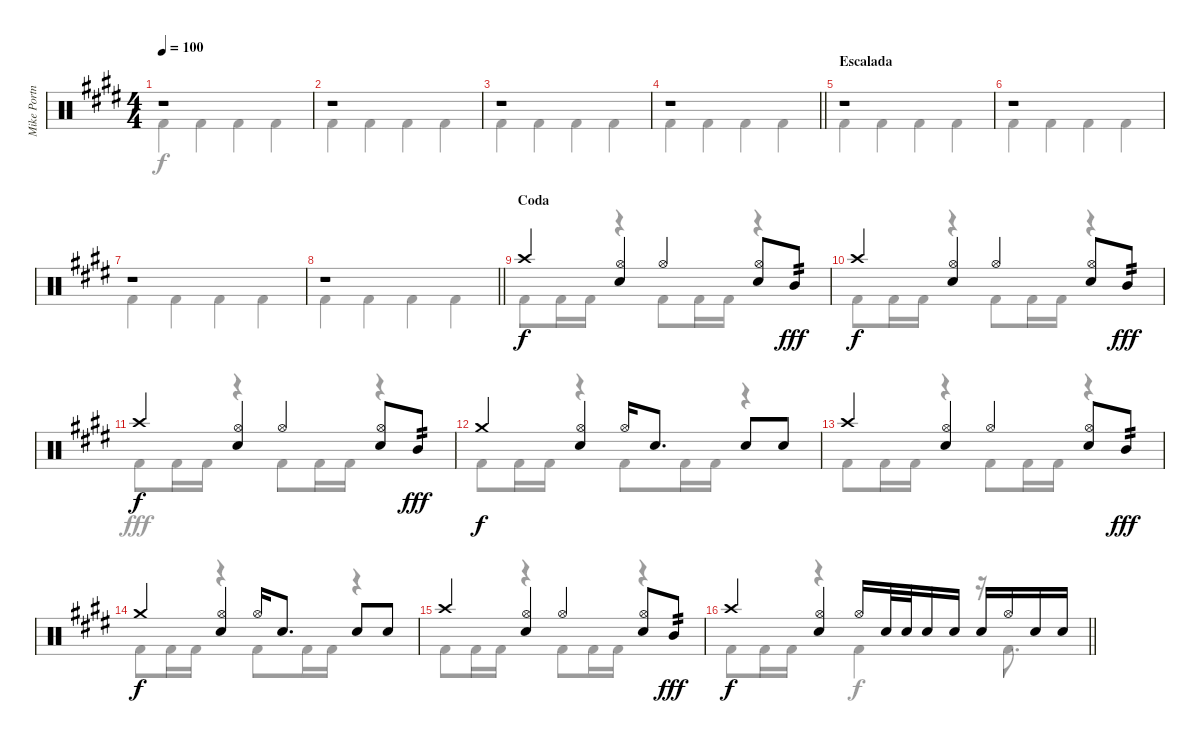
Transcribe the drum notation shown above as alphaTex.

\track ("Mike Portnoy" "Mike Portn") {instrument percussion}
\staff {score}
\articulation defaults
\voice
\ts (4 4)
\tempo 100
\clef neutral
\ks e
r.1{dy f} |
r.1 |
r.1 |
\barLineRight lightlight
r.1 |
\section ("" "Escalada")
r.1 |
r.1 |
r.1 |
\barLineRight lightlight
r.1 |
\section ("" "Coda")
"Crash high (hit)".4 ("Hi-Hat (open)" "Snare (hit) 2").4 "Hi-Hat (open)".4 ("Hi-Hat (open)" "Snare (hit) 2").8 "Mid Tom (hit)".8{tp 2 dy fff} |
"Crash high (hit)".4{dy f} ("Hi-Hat (open)" "Snare (hit) 2").4 "Hi-Hat (open)".4 ("Hi-Hat (open)" "Snare (hit) 2").8 "Mid Tom (hit)".8{tp 2 dy fff} |
"Crash high (hit)".4{dy f} ("Hi-Hat (open)" "Snare (hit) 2").4 "Hi-Hat (open)".4 ("Hi-Hat (open)" "Snare (hit) 2").8 "Mid Tom (hit)".8{tp 2 dy fff} |
"Crash medium (hit)".4{dy f} ("Hi-Hat (open)" "Snare (hit) 2").4 "Hi-Hat (open)".16 "Snare (hit) 2".8{d} "Snare (hit) 2".8 "Snare (hit) 2".8 |
"Crash high (hit)".4 ("Hi-Hat (open)" "Snare (hit) 2").4 "Hi-Hat (open)".4 ("Hi-Hat (open)" "Snare (hit) 2").8 "Mid Tom (hit)".8{tp 2 dy fff} |
"Crash medium (hit)".4{dy f} ("Hi-Hat (open)" "Snare (hit) 2").4 "Hi-Hat (open)".16 "Snare (hit) 2".8{d} "Snare (hit) 2".8 "Snare (hit) 2".8 |
"Crash high (hit)".4 ("Hi-Hat (open)" "Snare (hit) 2").4 "Hi-Hat (open)".4 ("Hi-Hat (open)" "Snare (hit) 2").8 "Mid Tom (hit)".8{tp 2 dy fff} |
\barLineRight lightlight "Crash high (hit)".4{dy f}
("Hi-Hat (open)" "Snare (hit) 2").4 "Hi-Hat (open)".16 "Snare (hit) 2".32 "Snare (hit) 2".32 "Snare (hit) 2".16 "Snare (hit) 2".16 "Snare (hit) 2".16 "Hi-Hat (open)".16 "Snare (hit) 2".16 "Snare (hit) 2".16
\voice
\clef neutral
\ottava regular
\simile none
\ks e "Kick (hit) 2".4{dy f} "Kick (hit) 2".4 "Kick (hit) 2".4 "Kick (hit) 2".4
|
"Kick (hit) 2".4 "Kick (hit) 2".4 "Kick (hit) 2".4 "Kick (hit) 2".4 |
"Kick (hit) 2".4 "Kick (hit) 2".4 "Kick (hit) 2".4 "Kick (hit) 2".4 |
\barLineRight lightlight "Kick (hit) 2".4 "Kick (hit) 2".4 "Kick (hit) 2".4 "Kick (hit) 2".4
|
"Kick (hit) 2".4 "Kick (hit) 2".4 "Kick (hit) 2".4 "Kick (hit) 2".4 |
"Kick (hit) 2".4 "Kick (hit) 2".4 "Kick (hit) 2".4 "Kick (hit) 2".4 |
"Kick (hit) 2".4 "Kick (hit) 2".4 "Kick (hit) 2".4 "Kick (hit) 2".4 |
\barLineRight lightlight "Kick (hit) 2".4 "Kick (hit) 2".4 "Kick (hit) 2".4 "Kick (hit) 2".4
|
"Kick (hit) 2".8 "Kick (hit) 2".16 "Kick (hit) 2".16 r.4 "Kick (hit) 2".8 "Kick (hit) 2".16 "Kick (hit) 2".16 r.4 |
"Kick (hit) 2".8 "Kick (hit) 2".16 "Kick (hit) 2".16 r.4 "Kick (hit) 2".8 "Kick (hit) 2".16 "Kick (hit) 2".16 r.4 |
"Kick (hit) 2".8{dy fff} "Kick (hit) 2".16 "Kick (hit) 2".16 r.4 "Kick (hit) 2".8 "Kick (hit) 2".16 "Kick (hit) 2".16 r.4 |
"Kick (hit) 2".8 "Kick (hit) 2".16 "Kick (hit) 2".16 r.4 "Kick (hit) 2".8 "Kick (hit) 2".16 "Kick (hit) 2".16 r.4 |
"Kick (hit) 2".8 "Kick (hit) 2".16 "Kick (hit) 2".16 r.4 "Kick (hit) 2".8 "Kick (hit) 2".16 "Kick (hit) 2".16 r.4 |
"Kick (hit) 2".8 "Kick (hit) 2".16 "Kick (hit) 2".16 r.4 "Kick (hit) 2".8 "Kick (hit) 2".16 "Kick (hit) 2".16 r.4 |
"Kick (hit) 2".8 "Kick (hit) 2".16 "Kick (hit) 2".16 r.4 "Kick (hit) 2".8 "Kick (hit) 2".16 "Kick (hit) 2".16 r.4 |
\barLineRight lightlight "Kick (hit) 2".8 "Kick (hit) 2".16 "Kick (hit) 2".16
r.4 "Kick (hit) 2".4{dy f} r.16 "Kick (hit) 2".8{d}
